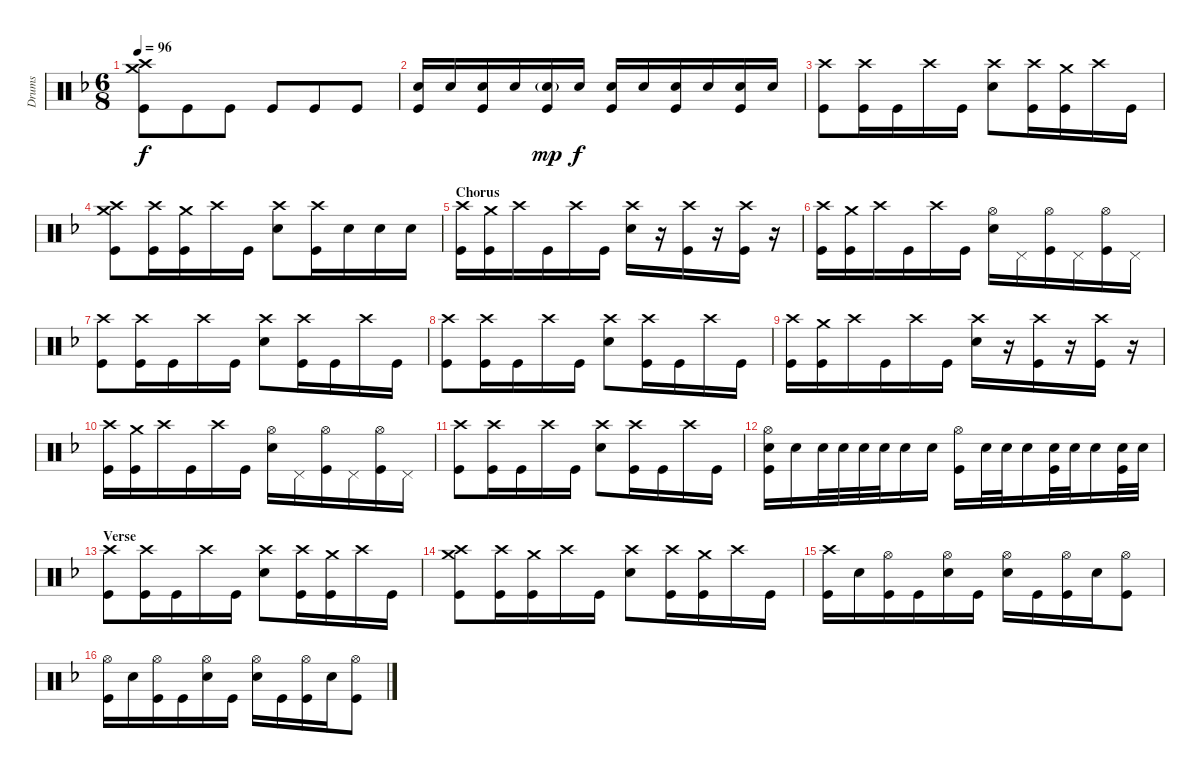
\track ("Drums" "Drums") {instrument percussion}
\staff {score}
\articulation defaults
\ts (6 8)
\tempo 96
\clef neutral
\ks f
("Crash medium (hit)" "Crash high (hit)" "Kick (hit)").8{dy f} "Kick (hit)".8 "Kick (hit)".8 "Kick (hit)".8 "Kick (hit)".8 "Kick (hit)".8 |
("Snare (hit) 2" "Kick (hit)").16 "Snare (hit) 2".16 ("Snare (hit) 2" "Kick (hit)").16 "Snare (hit) 2".16 ("Snare (hit) 2"{g} "Kick (hit)").16{dy mp} "Snare (hit) 2".16{dy f} ("Snare (hit) 2" "Kick (hit)").16 "Snare (hit) 2".16 ("Snare (hit) 2" "Kick (hit)").16 "Snare (hit) 2".16 ("Snare (hit) 2" "Kick (hit)").16 "Snare (hit) 2".16 |
("Crash high (hit)" "Kick (hit)").8 ("Crash high (hit)" "Kick (hit)").16 "Kick (hit)".16 "Crash high (hit)".16 "Kick (hit)".16 ("Crash high (hit)" "Snare (hit) 2").8 ("Crash high (hit)" "Kick (hit)").16 ("Crash medium (hit)" "Kick (hit)").16 "Crash high (hit)".16 "Kick (hit)".16 |
("Crash medium (hit)" "Crash high (hit)" "Kick (hit)").8 ("Crash high (hit)" "Kick (hit)").16 ("Crash medium (hit)" "Kick (hit)").16 "Crash high (hit)".16 "Kick (hit)".16 ("Crash high (hit)" "Snare (hit) 2").8 ("Crash high (hit)" "Kick (hit)").16 "Snare (hit) 2".16 "Snare (hit) 2".16 "Snare (hit) 2".16 |
\section ("" "Chorus")
("Crash high (hit)" "Kick (hit)").16 ("Crash medium (hit)" "Kick (hit)").16 "Crash high (hit)".16 "Kick (hit)".16 "Crash high (hit)".16 "Kick (hit)".16 ("Crash high (hit)" "Snare (hit) 2").16 r.16 ("Crash high (hit)" "Kick (hit)").16 r.16 ("Crash high (hit)" "Kick (hit)").16 r.16 |
("Crash high (hit)" "Kick (hit)").16 ("Crash medium (hit)" "Kick (hit)").16 "Crash high (hit)".16 "Kick (hit)".16 "Crash high (hit)".16 "Kick (hit)".16 ("Hi-Hat (open)" "Snare (hit) 2").16 "Pedal Hi-Hat (hit)".16 ("Hi-Hat (open)" "Kick (hit)").16 "Pedal Hi-Hat (hit)".16 ("Hi-Hat (open)" "Kick (hit)").16 "Pedal Hi-Hat (hit)".16 |
("Crash high (hit)" "Kick (hit)").8 ("Crash high (hit)" "Kick (hit)").16 "Kick (hit)".16 "Crash high (hit)".16 "Kick (hit)".16 ("Crash high (hit)" "Snare (hit) 2").8 ("Crash high (hit)" "Kick (hit)").16 "Kick (hit)".16 "Crash high (hit)".16 "Kick (hit)".16 |
("Crash high (hit)" "Kick (hit)").8 ("Crash high (hit)" "Kick (hit)").16 "Kick (hit)".16 "Crash high (hit)".16 "Kick (hit)".16 ("Crash high (hit)" "Snare (hit) 2").8 ("Crash high (hit)" "Kick (hit)").16 "Kick (hit)".16 "Crash high (hit)".16 "Kick (hit)".16 |
("Crash high (hit)" "Kick (hit)").16 ("Crash medium (hit)" "Kick (hit)").16 "Crash high (hit)".16 "Kick (hit)".16 "Crash high (hit)".16 "Kick (hit)".16 ("Crash high (hit)" "Snare (hit) 2").16 r.16 ("Crash high (hit)" "Kick (hit)").16 r.16 ("Crash high (hit)" "Kick (hit)").16 r.16 |
("Crash high (hit)" "Kick (hit)").16 ("Crash medium (hit)" "Kick (hit)").16 "Crash high (hit)".16 "Kick (hit)".16 "Crash high (hit)".16 "Kick (hit)".16 ("Hi-Hat (open)" "Snare (hit) 2").16 "Pedal Hi-Hat (hit)".16 ("Hi-Hat (open)" "Kick (hit)").16 "Pedal Hi-Hat (hit)".16 ("Hi-Hat (open)" "Kick (hit)").16 "Pedal Hi-Hat (hit)".16 |
("Crash high (hit)" "Kick (hit)").8 ("Crash high (hit)" "Kick (hit)").16 "Kick (hit)".16 "Crash high (hit)".16 "Kick (hit)".16 ("Crash high (hit)" "Snare (hit) 2").8 ("Crash high (hit)" "Kick (hit)").16 "Kick (hit)".16 "Crash high (hit)".16 "Kick (hit)".16 |
("Hi-Hat (open)" "Snare (hit) 2" "Kick (hit)").16 "Snare (hit) 2".16 "Snare (hit) 2".32 "Snare (hit) 2".32 "Snare (hit) 2".32 "Snare (hit) 2".32 "Snare (hit) 2".16 "Snare (hit) 2".16 ("Hi-Hat (open)" "Kick (hit)").16 "Snare (hit) 2".32 "Snare (hit) 2".32 "Snare (hit) 2".16 ("Snare (hit) 2" "Kick (hit)").32 "Snare (hit) 2".32 "Snare (hit) 2".16 ("Snare (hit) 2" "Kick (hit)").32 "Snare (hit) 2".32 |
\section ("" "Verse")
("Crash high (hit)" "Kick (hit)").8 ("Crash high (hit)" "Kick (hit)").16 "Kick (hit)".16 "Crash high (hit)".16 "Kick (hit)".16 ("Crash high (hit)" "Snare (hit) 2").8 ("Crash high (hit)" "Kick (hit)").16 ("Crash medium (hit)" "Kick (hit)").16 "Crash high (hit)".16 "Kick (hit)".16 |
("Crash medium (hit)" "Crash high (hit)" "Kick (hit)").8 ("Crash high (hit)" "Kick (hit)").16 ("Crash medium (hit)" "Kick (hit)").16 "Crash high (hit)".16 "Kick (hit)".16 ("Crash high (hit)" "Snare (hit) 2").8 ("Crash high (hit)" "Kick (hit)").16 ("Crash medium (hit)" "Kick (hit)").16 "Crash high (hit)".16 "Kick (hit)".16 |
("Crash high (hit)" "Kick (hit)").16 "Snare (hit) 2".16 ("Hi-Hat (open)" "Kick (hit)").16 "Kick (hit)".16 ("Hi-Hat (open)" "Snare (hit) 2").16 "Kick (hit)".16 ("Hi-Hat (open)" "Snare (hit) 2").16 "Kick (hit)".16 ("Hi-Hat (open)" "Kick (hit)").16 "Snare (hit) 2".16 ("Hi-Hat (open)" "Kick (hit)").8 |
("Hi-Hat (open)" "Kick (hit)").16 "Snare (hit) 2".16 ("Hi-Hat (open)" "Kick (hit)").16 "Kick (hit)".16 ("Hi-Hat (open)" "Snare (hit) 2").16 "Kick (hit)".16 ("Hi-Hat (open)" "Snare (hit) 2").16 "Kick (hit)".16 ("Hi-Hat (open)" "Kick (hit)").16 "Snare (hit) 2".16 ("Hi-Hat (open)" "Kick (hit)").8
